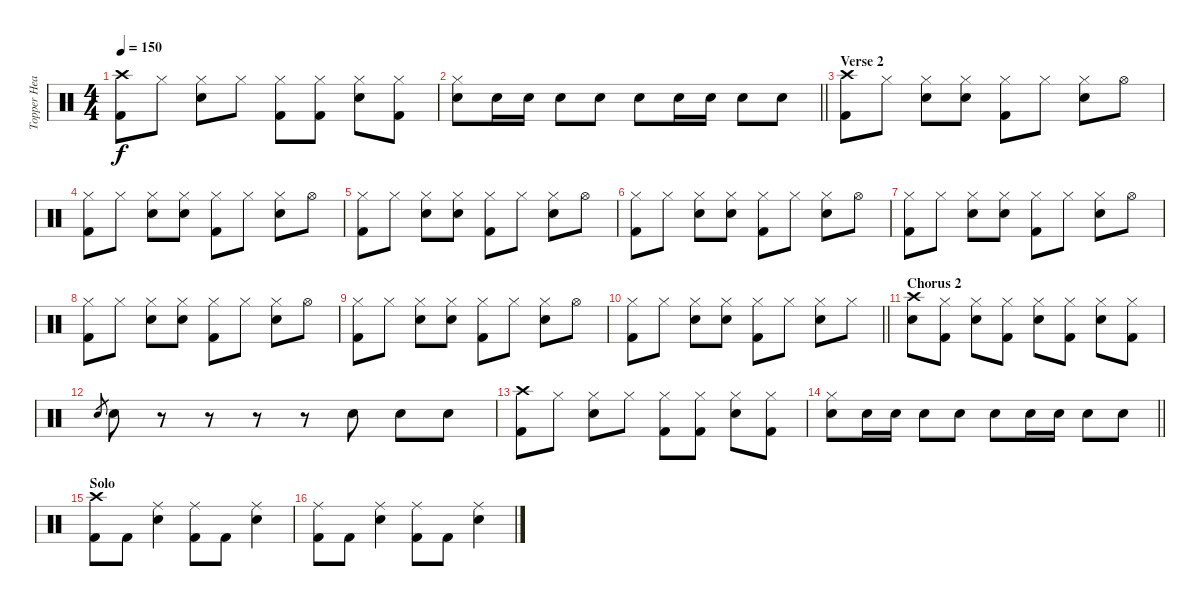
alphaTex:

\track ("Topper Headon - Drums" "Topper Hea") {instrument percussion}
\staff {score}
\articulation defaults
\ts (4 4)
\tempo 150
\clef neutral
\ks c
("Crash high (hit)" "Kick (hit) 2").8{dy f} "Hi-Hat (closed)".8 ("Hi-Hat (closed)" "Electric Snare (hit)").8 "Hi-Hat (closed)".8 ("Hi-Hat (closed)" "Kick (hit) 2").8 ("Hi-Hat (closed)" "Kick (hit) 2").8 ("Hi-Hat (closed)" "Electric Snare (hit)").8 ("Hi-Hat (closed)" "Kick (hit) 2").8 |
\barLineRight lightlight
("Hi-Hat (closed)" "Electric Snare (hit)").8 "Electric Snare (hit)".16 "Electric Snare (hit)".16 "Electric Snare (hit)".8 "Electric Snare (hit)".8 "Electric Snare (hit)".8 "Electric Snare (hit)".16 "Electric Snare (hit)".16 "Electric Snare (hit)".8 "Electric Snare (hit)".8 |
\section ("" "Verse 2")
("Crash high (hit)" "Kick (hit) 2").8 "Hi-Hat (closed)".8 ("Hi-Hat (closed)" "Electric Snare (hit)").8 ("Hi-Hat (closed)" "Electric Snare (hit)").8 ("Hi-Hat (closed)" "Kick (hit) 2").8 "Hi-Hat (closed)".8 ("Hi-Hat (closed)" "Electric Snare (hit)").8 "Hi-Hat (open)".8 |
("Hi-Hat (closed)" "Kick (hit) 2").8 "Hi-Hat (closed)".8 ("Hi-Hat (closed)" "Electric Snare (hit)").8 ("Hi-Hat (closed)" "Electric Snare (hit)").8 ("Hi-Hat (closed)" "Kick (hit) 2").8 "Hi-Hat (closed)".8 ("Hi-Hat (closed)" "Electric Snare (hit)").8 "Hi-Hat (open)".8 |
("Hi-Hat (closed)" "Kick (hit) 2").8 "Hi-Hat (closed)".8 ("Hi-Hat (closed)" "Electric Snare (hit)").8 ("Hi-Hat (closed)" "Electric Snare (hit)").8 ("Hi-Hat (closed)" "Kick (hit) 2").8 "Hi-Hat (closed)".8 ("Hi-Hat (closed)" "Electric Snare (hit)").8 "Hi-Hat (open)".8 |
("Hi-Hat (closed)" "Kick (hit) 2").8 "Hi-Hat (closed)".8 ("Hi-Hat (closed)" "Electric Snare (hit)").8 ("Hi-Hat (closed)" "Electric Snare (hit)").8 ("Hi-Hat (closed)" "Kick (hit) 2").8 "Hi-Hat (closed)".8 ("Hi-Hat (closed)" "Electric Snare (hit)").8 "Hi-Hat (open)".8 |
("Hi-Hat (closed)" "Kick (hit) 2").8 "Hi-Hat (closed)".8 ("Hi-Hat (closed)" "Electric Snare (hit)").8 ("Hi-Hat (closed)" "Electric Snare (hit)").8 ("Hi-Hat (closed)" "Kick (hit) 2").8 "Hi-Hat (closed)".8 ("Hi-Hat (closed)" "Electric Snare (hit)").8 "Hi-Hat (open)".8 |
("Hi-Hat (closed)" "Kick (hit) 2").8 "Hi-Hat (closed)".8 ("Hi-Hat (closed)" "Electric Snare (hit)").8 ("Hi-Hat (closed)" "Electric Snare (hit)").8 ("Hi-Hat (closed)" "Kick (hit) 2").8 "Hi-Hat (closed)".8 ("Hi-Hat (closed)" "Electric Snare (hit)").8 "Hi-Hat (open)".8 |
("Hi-Hat (closed)" "Kick (hit) 2").8 "Hi-Hat (closed)".8 ("Hi-Hat (closed)" "Electric Snare (hit)").8 ("Hi-Hat (closed)" "Electric Snare (hit)").8 ("Hi-Hat (closed)" "Kick (hit) 2").8 "Hi-Hat (closed)".8 ("Hi-Hat (closed)" "Electric Snare (hit)").8 "Hi-Hat (open)".8 |
\barLineRight lightlight
("Hi-Hat (closed)" "Kick (hit) 2").8 "Hi-Hat (closed)".8 ("Hi-Hat (closed)" "Electric Snare (hit)").8 ("Hi-Hat (closed)" "Electric Snare (hit)").8 ("Hi-Hat (closed)" "Kick (hit) 2").8 "Hi-Hat (closed)".8 ("Hi-Hat (closed)" "Electric Snare (hit)").8 "Hi-Hat (closed)".8 |
\section ("" "Chorus 2")
("Crash high (hit)" "Electric Snare (hit)").8 ("Hi-Hat (closed)" "Kick (hit) 2").8 ("Hi-Hat (closed)" "Electric Snare (hit)").8 ("Hi-Hat (closed)" "Kick (hit) 2").8 ("Hi-Hat (closed)" "Electric Snare (hit)").8 ("Hi-Hat (closed)" "Kick (hit) 2").8 ("Hi-Hat (closed)" "Electric Snare (hit)").8 ("Hi-Hat (closed)" "Kick (hit) 2").8 |
"Electric Snare (hit)".8{gr} "Electric Snare (hit)".8 r.8 r.8 r.8 r.8 "Electric Snare (hit)".8 "Electric Snare (hit)".8 "Electric Snare (hit)".8 |
("Crash high (hit)" "Kick (hit) 2").8 "Hi-Hat (closed)".8 ("Hi-Hat (closed)" "Electric Snare (hit)").8 "Hi-Hat (closed)".8 ("Hi-Hat (closed)" "Kick (hit) 2").8 ("Hi-Hat (closed)" "Kick (hit) 2").8 ("Hi-Hat (closed)" "Electric Snare (hit)").8 ("Hi-Hat (closed)" "Kick (hit) 2").8 |
\barLineRight lightlight
("Hi-Hat (closed)" "Electric Snare (hit)").8 "Electric Snare (hit)".16 "Electric Snare (hit)".16 "Electric Snare (hit)".8 "Electric Snare (hit)".8 "Electric Snare (hit)".8 "Electric Snare (hit)".16 "Electric Snare (hit)".16 "Electric Snare (hit)".8 "Electric Snare (hit)".8 |
\section ("" "Solo")
("Crash high (hit)" "Kick (hit) 2").8 "Kick (hit) 2".8 ("Ride (middle)" "Electric Snare (hit)").4 ("Ride (middle)" "Kick (hit) 2").8 "Kick (hit) 2".8 ("Ride (middle)" "Electric Snare (hit)").4 |
("Ride (middle)" "Kick (hit) 2").8 "Kick (hit) 2".8 ("Ride (middle)" "Electric Snare (hit)").4 ("Ride (middle)" "Kick (hit) 2").8 "Kick (hit) 2".8 ("Ride (middle)" "Electric Snare (hit)").4
